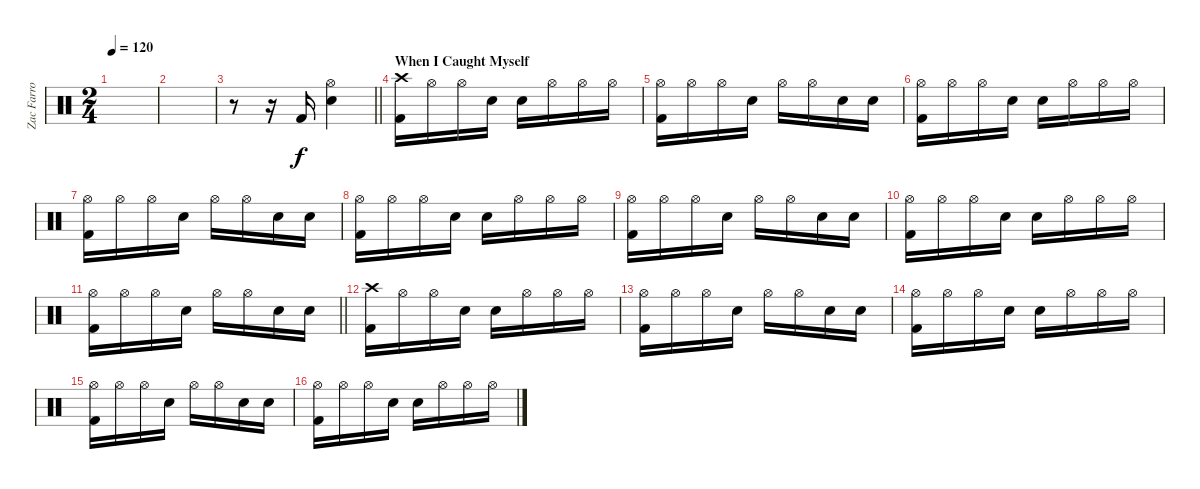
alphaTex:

\track ("Zac Farro" "Zac Farro") {instrument percussion}
\staff {score}
\articulation defaults
\ts (2 4)
\tempo 120
\clef neutral
\ks c
|
|
\barLineRight lightlight
r.8 r.16 "Kick (hit) 2".16 ("Hi-Hat (open)" "Electric Snare (hit)").4 |
\section ("" "When I Caught Myself")
("Kick (hit) 2" "Crash high (hit)").16 "Hi-Hat (open)".16 "Hi-Hat (open)".16 "Electric Snare (hit)".16 "Electric Snare (hit)".16 "Hi-Hat (open)".16 "Hi-Hat (open)".16 "Hi-Hat (open)".16 |
("Hi-Hat (open)" "Kick (hit) 2").16 "Hi-Hat (open)".16 "Hi-Hat (open)".16 "Electric Snare (hit)".16 "Hi-Hat (open)".16 "Hi-Hat (open)".16 "Electric Snare (hit)".16 "Electric Snare (hit)".16 |
("Hi-Hat (open)" "Kick (hit) 2").16 "Hi-Hat (open)".16 "Hi-Hat (open)".16 "Electric Snare (hit)".16 "Electric Snare (hit)".16 "Hi-Hat (open)".16 "Hi-Hat (open)".16 "Hi-Hat (open)".16 |
("Hi-Hat (open)" "Kick (hit) 2").16 "Hi-Hat (open)".16 "Hi-Hat (open)".16 "Electric Snare (hit)".16 "Hi-Hat (open)".16 "Hi-Hat (open)".16 "Electric Snare (hit)".16 "Electric Snare (hit)".16 |
("Hi-Hat (open)" "Kick (hit) 2").16 "Hi-Hat (open)".16 "Hi-Hat (open)".16 "Electric Snare (hit)".16 "Electric Snare (hit)".16 "Hi-Hat (open)".16 "Hi-Hat (open)".16 "Hi-Hat (open)".16 |
("Hi-Hat (open)" "Kick (hit) 2").16 "Hi-Hat (open)".16 "Hi-Hat (open)".16 "Electric Snare (hit)".16 "Hi-Hat (open)".16 "Hi-Hat (open)".16 "Electric Snare (hit)".16 "Electric Snare (hit)".16 |
("Hi-Hat (open)" "Kick (hit) 2").16 "Hi-Hat (open)".16 "Hi-Hat (open)".16 "Electric Snare (hit)".16 "Electric Snare (hit)".16 "Hi-Hat (open)".16 "Hi-Hat (open)".16 "Hi-Hat (open)".16 |
\barLineRight lightlight
("Hi-Hat (open)" "Kick (hit) 2").16 "Hi-Hat (open)".16 "Hi-Hat (open)".16 "Electric Snare (hit)".16 "Hi-Hat (open)".16 "Hi-Hat (open)".16 "Electric Snare (hit)".16 "Electric Snare (hit)".16 |
("Kick (hit) 2" "Crash high (hit)").16 "Hi-Hat (open)".16 "Hi-Hat (open)".16 "Electric Snare (hit)".16 "Electric Snare (hit)".16 "Hi-Hat (open)".16 "Hi-Hat (open)".16 "Hi-Hat (open)".16 |
("Hi-Hat (open)" "Kick (hit) 2").16 "Hi-Hat (open)".16 "Hi-Hat (open)".16 "Electric Snare (hit)".16 "Hi-Hat (open)".16 "Hi-Hat (open)".16 "Electric Snare (hit)".16 "Electric Snare (hit)".16 |
("Hi-Hat (open)" "Kick (hit) 2").16 "Hi-Hat (open)".16 "Hi-Hat (open)".16 "Electric Snare (hit)".16 "Electric Snare (hit)".16 "Hi-Hat (open)".16 "Hi-Hat (open)".16 "Hi-Hat (open)".16 |
("Hi-Hat (open)" "Kick (hit) 2").16 "Hi-Hat (open)".16 "Hi-Hat (open)".16 "Electric Snare (hit)".16 "Hi-Hat (open)".16 "Hi-Hat (open)".16 "Electric Snare (hit)".16 "Electric Snare (hit)".16 |
("Hi-Hat (open)" "Kick (hit) 2").16 "Hi-Hat (open)".16 "Hi-Hat (open)".16 "Electric Snare (hit)".16 "Electric Snare (hit)".16 "Hi-Hat (open)".16 "Hi-Hat (open)".16 "Hi-Hat (open)".16
